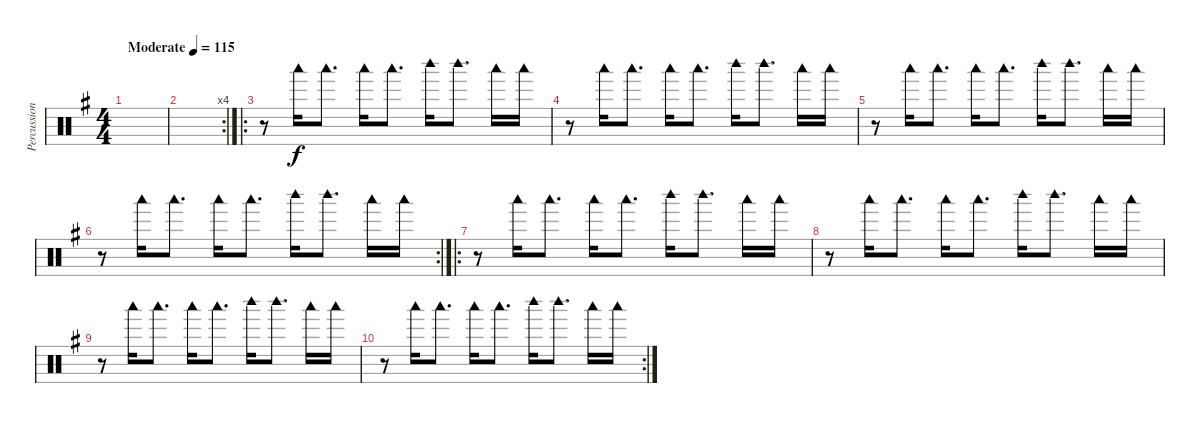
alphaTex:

\track ("Percussion" "Percussion") {instrument percussion}
\staff {score}
\articulation defaults
\ts (4 4)
\tempo (115 "Moderate")
\clef neutral
\ks g
|
\rc 4
|
\ro
r.8 "Woodblock low (hit)".16 "Woodblock low (hit)".8{d} "Woodblock low (hit)".16 "Woodblock low (hit)".8{d} "Woodblock high (hit)".16 "Woodblock high (hit)".8{d} "Woodblock low (hit)".16 "Woodblock low (hit)".16 |
r.8 "Woodblock low (hit)".16 "Woodblock low (hit)".8{d} "Woodblock low (hit)".16 "Woodblock low (hit)".8{d} "Woodblock high (hit)".16 "Woodblock high (hit)".8{d} "Woodblock low (hit)".16 "Woodblock low (hit)".16 |
r.8 "Woodblock low (hit)".16 "Woodblock low (hit)".8{d} "Woodblock low (hit)".16 "Woodblock low (hit)".8{d} "Woodblock high (hit)".16 "Woodblock high (hit)".8{d} "Woodblock low (hit)".16 "Woodblock low (hit)".16 |
\rc 2
r.8 "Woodblock low (hit)".16 "Woodblock low (hit)".8{d} "Woodblock low (hit)".16 "Woodblock low (hit)".8{d} "Woodblock high (hit)".16 "Woodblock high (hit)".8{d} "Woodblock low (hit)".16 "Woodblock low (hit)".16 |
\ro
r.8 "Woodblock low (hit)".16 "Woodblock low (hit)".8{d} "Woodblock low (hit)".16 "Woodblock low (hit)".8{d} "Woodblock high (hit)".16 "Woodblock high (hit)".8{d} "Woodblock low (hit)".16 "Woodblock low (hit)".16 |
r.8 "Woodblock low (hit)".16 "Woodblock low (hit)".8{d} "Woodblock low (hit)".16 "Woodblock low (hit)".8{d} "Woodblock high (hit)".16 "Woodblock high (hit)".8{d} "Woodblock low (hit)".16 "Woodblock low (hit)".16 |
r.8 "Woodblock low (hit)".16 "Woodblock low (hit)".8{d} "Woodblock low (hit)".16 "Woodblock low (hit)".8{d} "Woodblock high (hit)".16 "Woodblock high (hit)".8{d} "Woodblock low (hit)".16 "Woodblock low (hit)".16 |
\rc 2
r.8 "Woodblock low (hit)".16 "Woodblock low (hit)".8{d} "Woodblock low (hit)".16 "Woodblock low (hit)".8{d} "Woodblock high (hit)".16 "Woodblock high (hit)".8{d} "Woodblock low (hit)".16 "Woodblock low (hit)".16
